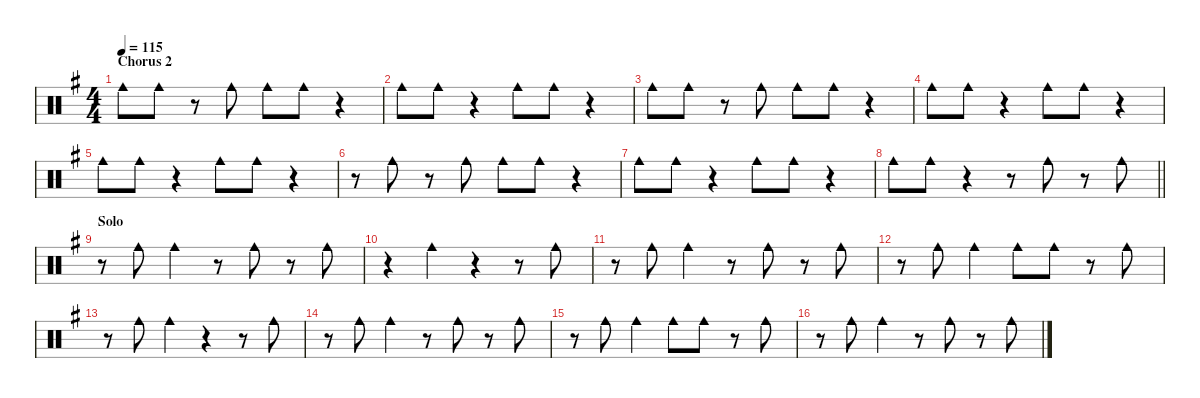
\defaultSystemsLayout 8
\hideDynamics
\bracketExtendMode nobrackets
\singleTrackTrackNamePolicy hidden
\multiTrackTrackNamePolicy hidden
\otherSystemsTrackNameOrientation horizontal
\track ("Cowbell" "drm.") {defaultSystemsLayout 8 instrument percussion}
\staff {score}
\articulation defaults
\ts (4 4)
\section ("" "Chorus 2")
\tempo 115
\clef neutral
\ks g "Cowbell medium (hit)"{acc forcenatural}.8{dy f beam Down} "Cowbell medium (hit)"{acc forcenatural}.8{beam Down}
r.8{beam Down} "Cowbell medium (hit)"{acc forcenatural}.8{beam Down} "Cowbell medium (hit)"{acc forcenatural}.8{beam Down} "Cowbell medium (hit)"{acc forcenatural}.8{beam Down} r.4{beam Down} |
"Cowbell medium (hit)"{acc forcenatural}.8{beam Down} "Cowbell medium (hit)"{acc forcenatural}.8{beam Down} r.4{beam Down} "Cowbell medium (hit)"{acc forcenatural}.8{beam Down} "Cowbell medium (hit)"{acc forcenatural}.8{beam Down} r.4{beam Down} |
"Cowbell medium (hit)"{acc forcenatural}.8{beam Down} "Cowbell medium (hit)"{acc forcenatural}.8{beam Down} r.8{beam Down} "Cowbell medium (hit)"{acc forcenatural}.8{beam Down} "Cowbell medium (hit)"{acc forcenatural}.8{beam Down} "Cowbell medium (hit)"{acc forcenatural}.8{beam Down} r.4{beam Down} |
"Cowbell medium (hit)"{acc forcenatural}.8{beam Down} "Cowbell medium (hit)"{acc forcenatural}.8{beam Down} r.4{beam Down} "Cowbell medium (hit)"{acc forcenatural}.8{beam Down} "Cowbell medium (hit)"{acc forcenatural}.8{beam Down} r.4{beam Down} |
"Cowbell medium (hit)"{acc forcenatural}.8{beam Down} "Cowbell medium (hit)"{acc forcenatural}.8{beam Down} r.4{beam Down} "Cowbell medium (hit)"{acc forcenatural}.8{beam Down} "Cowbell medium (hit)"{acc forcenatural}.8{beam Down} r.4{beam Down} |
r.8{beam Down} "Cowbell medium (hit)"{acc forcenatural}.8{beam Down} r.8{beam Down} "Cowbell medium (hit)"{acc forcenatural}.8{beam Down} "Cowbell medium (hit)"{acc forcenatural}.8{beam Down} "Cowbell medium (hit)"{acc forcenatural}.8{beam Down} r.4{beam Down} |
"Cowbell medium (hit)"{acc forcenatural}.8{beam Down} "Cowbell medium (hit)"{acc forcenatural}.8{beam Down} r.4{beam Down} "Cowbell medium (hit)"{acc forcenatural}.8{beam Down} "Cowbell medium (hit)"{acc forcenatural}.8{beam Down} r.4{beam Down} |
\barLineRight lightlight "Cowbell medium (hit)"{acc forcenatural}.8{beam Down} "Cowbell medium (hit)"{acc forcenatural}.8{beam Down}
r.4{beam Down} r.8{beam Down} "Cowbell medium (hit)"{acc forcenatural}.8{beam Down} r.8{beam Down} "Cowbell medium (hit)"{acc forcenatural}.8{beam Down} |
\section ("" "Solo")
r.8{beam Down} "Cowbell medium (hit)"{acc forcenatural}.8{beam Down} "Cowbell medium (hit)"{acc forcenatural}.4{beam Down} r.8{beam Down} "Cowbell medium (hit)"{acc forcenatural}.8{beam Down} r.8{beam Down} "Cowbell medium (hit)"{acc forcenatural}.8{beam Down} |
r.4{beam Down} "Cowbell medium (hit)"{acc forcenatural}.4{beam Down} r.4{beam Down} r.8{beam Down} "Cowbell medium (hit)"{acc forcenatural}.8{beam Down} |
r.8{beam Down} "Cowbell medium (hit)"{acc forcenatural}.8{beam Down} "Cowbell medium (hit)"{acc forcenatural}.4{beam Down} r.8{beam Down} "Cowbell medium (hit)"{acc forcenatural}.8{beam Down} r.8{beam Down} "Cowbell medium (hit)"{acc forcenatural}.8{beam Down} |
r.8{beam Down} "Cowbell medium (hit)"{acc forcenatural}.8{beam Down} "Cowbell medium (hit)"{acc forcenatural}.4{beam Down} "Cowbell medium (hit)"{acc forcenatural}.8{beam Down} "Cowbell medium (hit)"{acc forcenatural}.8{beam Down} r.8{beam Down} "Cowbell medium (hit)"{acc forcenatural}.8{beam Down} |
r.8{beam Down} "Cowbell medium (hit)"{acc forcenatural}.8{beam Down} "Cowbell medium (hit)"{acc forcenatural}.4{beam Down} r.4{beam Down} r.8{beam Down} "Cowbell medium (hit)"{acc forcenatural}.8{beam Down} |
r.8{beam Down} "Cowbell medium (hit)"{acc forcenatural}.8{beam Down} "Cowbell medium (hit)"{acc forcenatural}.4{beam Down} r.8{beam Down} "Cowbell medium (hit)"{acc forcenatural}.8{beam Down} r.8{beam Down} "Cowbell medium (hit)"{acc forcenatural}.8{beam Down} |
r.8{beam Down} "Cowbell medium (hit)"{acc forcenatural}.8{beam Down} "Cowbell medium (hit)"{acc forcenatural}.4{beam Down} "Cowbell medium (hit)"{acc forcenatural}.8{beam Down} "Cowbell medium (hit)"{acc forcenatural}.8{beam Down} r.8{beam Down} "Cowbell medium (hit)"{acc forcenatural}.8{beam Down} |
r.8{beam Down} "Cowbell medium (hit)"{acc forcenatural}.8{beam Down} "Cowbell medium (hit)"{acc forcenatural}.4{beam Down} r.8{beam Down} "Cowbell medium (hit)"{acc forcenatural}.8{beam Down} r.8{beam Down} "Cowbell medium (hit)"{acc forcenatural}.8{beam Down}
